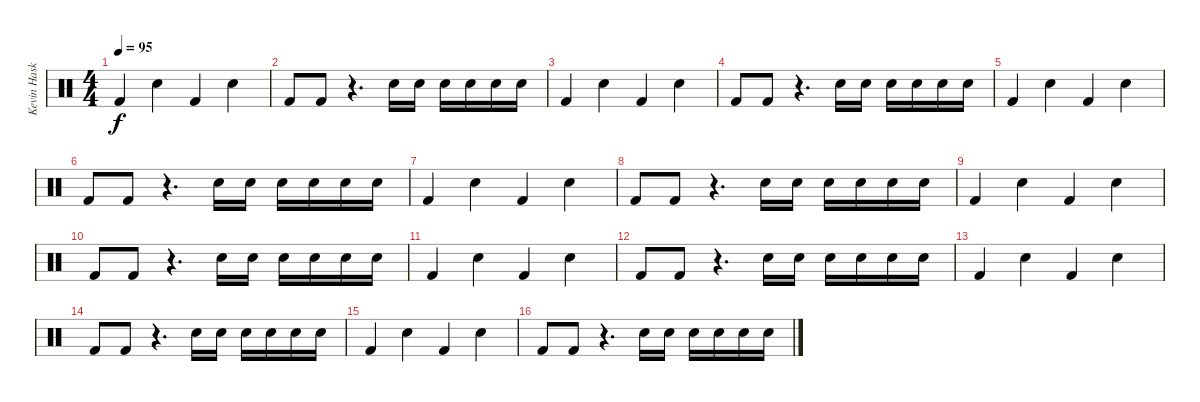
\track ("Kevin Haskins" "Kevin Hask") {instrument percussion}
\staff {score}
\articulation defaults
\ts (4 4)
\tempo 95
\clef neutral
\ks c "Kick (hit) 2".4{dy f} "Electric Snare (hit)".4 "Kick (hit) 2".4 "Electric Snare (hit)".4
|
"Kick (hit) 2".8 "Kick (hit) 2".8 r.4{d} "Electric Snare (hit)".16 "Electric Snare (hit)".16 "Electric Snare (hit)".16 "Electric Snare (hit)".16 "Electric Snare (hit)".16 "Electric Snare (hit)".16 |
"Kick (hit) 2".4 "Electric Snare (hit)".4 "Kick (hit) 2".4 "Electric Snare (hit)".4 |
"Kick (hit) 2".8 "Kick (hit) 2".8 r.4{d} "Electric Snare (hit)".16 "Electric Snare (hit)".16 "Electric Snare (hit)".16 "Electric Snare (hit)".16 "Electric Snare (hit)".16 "Electric Snare (hit)".16 |
"Kick (hit) 2".4 "Electric Snare (hit)".4 "Kick (hit) 2".4 "Electric Snare (hit)".4 |
"Kick (hit) 2".8 "Kick (hit) 2".8 r.4{d} "Electric Snare (hit)".16 "Electric Snare (hit)".16 "Electric Snare (hit)".16 "Electric Snare (hit)".16 "Electric Snare (hit)".16 "Electric Snare (hit)".16 |
"Kick (hit) 2".4 "Electric Snare (hit)".4 "Kick (hit) 2".4 "Electric Snare (hit)".4 |
"Kick (hit) 2".8 "Kick (hit) 2".8 r.4{d} "Electric Snare (hit)".16 "Electric Snare (hit)".16 "Electric Snare (hit)".16 "Electric Snare (hit)".16 "Electric Snare (hit)".16 "Electric Snare (hit)".16 |
"Kick (hit) 2".4 "Electric Snare (hit)".4 "Kick (hit) 2".4 "Electric Snare (hit)".4 |
"Kick (hit) 2".8 "Kick (hit) 2".8 r.4{d} "Electric Snare (hit)".16 "Electric Snare (hit)".16 "Electric Snare (hit)".16 "Electric Snare (hit)".16 "Electric Snare (hit)".16 "Electric Snare (hit)".16 |
"Kick (hit) 2".4 "Electric Snare (hit)".4 "Kick (hit) 2".4 "Electric Snare (hit)".4 |
"Kick (hit) 2".8 "Kick (hit) 2".8 r.4{d} "Electric Snare (hit)".16 "Electric Snare (hit)".16 "Electric Snare (hit)".16 "Electric Snare (hit)".16 "Electric Snare (hit)".16 "Electric Snare (hit)".16 |
"Kick (hit) 2".4 "Electric Snare (hit)".4 "Kick (hit) 2".4 "Electric Snare (hit)".4 |
"Kick (hit) 2".8 "Kick (hit) 2".8 r.4{d} "Electric Snare (hit)".16 "Electric Snare (hit)".16 "Electric Snare (hit)".16 "Electric Snare (hit)".16 "Electric Snare (hit)".16 "Electric Snare (hit)".16 |
"Kick (hit) 2".4 "Electric Snare (hit)".4 "Kick (hit) 2".4 "Electric Snare (hit)".4 |
"Kick (hit) 2".8 "Kick (hit) 2".8 r.4{d} "Electric Snare (hit)".16 "Electric Snare (hit)".16 "Electric Snare (hit)".16 "Electric Snare (hit)".16 "Electric Snare (hit)".16 "Electric Snare (hit)".16
